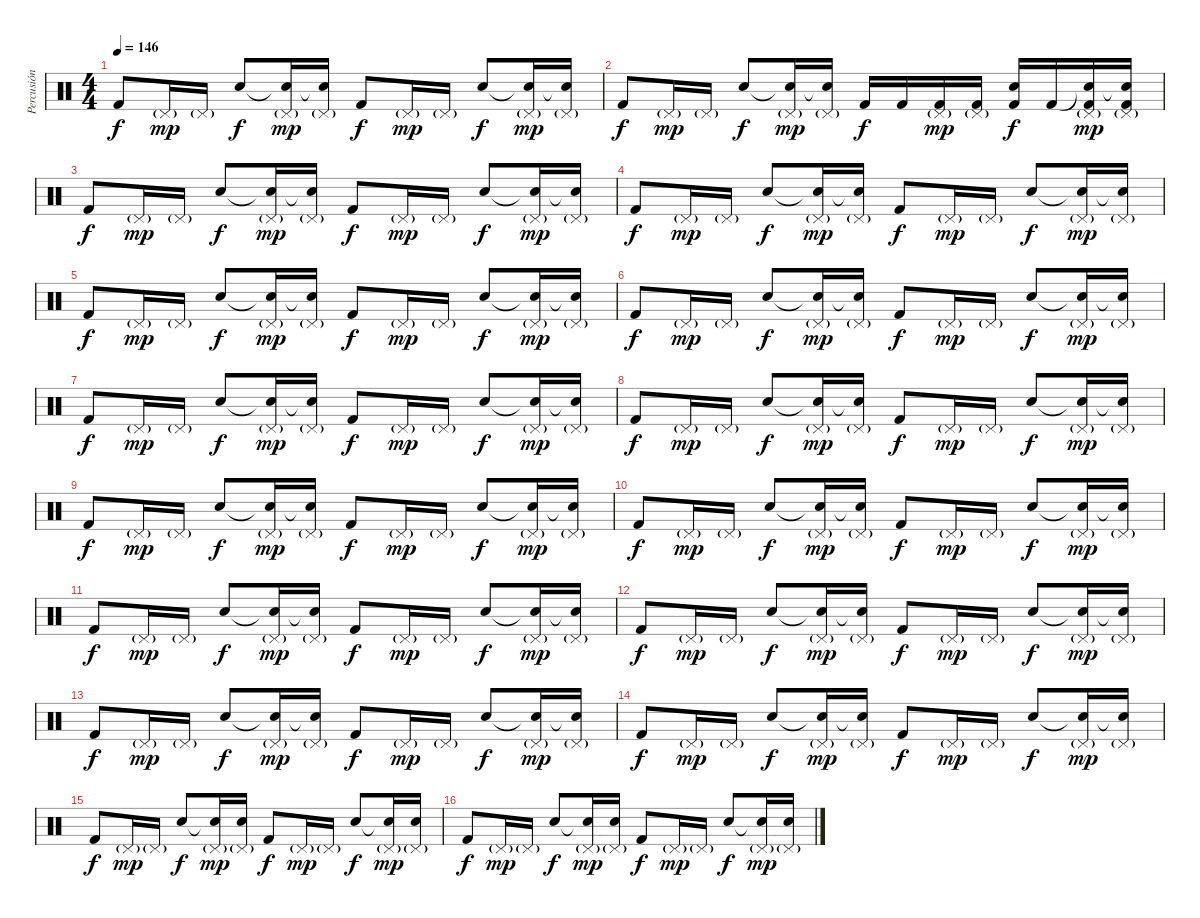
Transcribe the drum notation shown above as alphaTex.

\track ("Percusión" "Percusión") {instrument percussion}
\staff {score}
\articulation defaults
\ts (4 4)
\tempo 146
\clef neutral
\ks c "Kick (hit) 2".8{dy f} "Pedal Hi-Hat (hit)"{g}.16{dy mp} "Pedal Hi-Hat (hit)"{g}.16 "Snare (hit) 2".8{dy f}
("Snare (hit)"{t} "Pedal Hi-Hat (hit)"{g}).16{dy mp} ("Snare (hit)"{t} "Pedal Hi-Hat (hit)"{g}).16 "Kick (hit) 2".8{dy f} "Pedal Hi-Hat (hit)"{g}.16{dy mp} "Pedal Hi-Hat (hit)"{g}.16 "Snare (hit) 2".8{dy f} ("Snare (hit)"{t} "Pedal Hi-Hat (hit)"{g}).16{dy mp} ("Snare (hit)"{t} "Pedal Hi-Hat (hit)"{g}).16 |
"Kick (hit) 2".8{dy f} "Pedal Hi-Hat (hit)"{g}.16{dy mp} "Pedal Hi-Hat (hit)"{g}.16 "Snare (hit) 2".8{dy f} ("Snare (hit)"{t} "Pedal Hi-Hat (hit)"{g}).16{dy mp} ("Snare (hit)"{t} "Pedal Hi-Hat (hit)"{g}).16 "Kick (hit) 2".16{dy f} "Kick (hit) 2".16 ("Pedal Hi-Hat (hit)"{g} "Kick (hit) 2").16{dy mp} ("Pedal Hi-Hat (hit)"{g} "Kick (hit) 2").16 ("Snare (hit) 2" "Kick (hit) 2").16{dy f} "Kick (hit) 2".16 ("Snare (hit)"{t} "Pedal Hi-Hat (hit)"{g} "Kick (hit) 2").16{dy mp} ("Snare (hit)"{t} "Pedal Hi-Hat (hit)"{g} "Kick (hit) 2").16 |
"Kick (hit) 2".8{dy f} "Pedal Hi-Hat (hit)"{g}.16{dy mp} "Pedal Hi-Hat (hit)"{g}.16 "Snare (hit) 2".8{dy f} ("Snare (hit)"{t} "Pedal Hi-Hat (hit)"{g}).16{dy mp} ("Snare (hit)"{t} "Pedal Hi-Hat (hit)"{g}).16 "Kick (hit) 2".8{dy f} "Pedal Hi-Hat (hit)"{g}.16{dy mp} "Pedal Hi-Hat (hit)"{g}.16 "Snare (hit) 2".8{dy f} ("Snare (hit)"{t} "Pedal Hi-Hat (hit)"{g}).16{dy mp} ("Snare (hit)"{t} "Pedal Hi-Hat (hit)"{g}).16 |
"Kick (hit) 2".8{dy f} "Pedal Hi-Hat (hit)"{g}.16{dy mp} "Pedal Hi-Hat (hit)"{g}.16 "Snare (hit) 2".8{dy f} ("Snare (hit)"{t} "Pedal Hi-Hat (hit)"{g}).16{dy mp} ("Snare (hit)"{t} "Pedal Hi-Hat (hit)"{g}).16 "Kick (hit) 2".8{dy f} "Pedal Hi-Hat (hit)"{g}.16{dy mp} "Pedal Hi-Hat (hit)"{g}.16 "Snare (hit) 2".8{dy f} ("Snare (hit)"{t} "Pedal Hi-Hat (hit)"{g}).16{dy mp} ("Snare (hit)"{t} "Pedal Hi-Hat (hit)"{g}).16 |
"Kick (hit) 2".8{dy f} "Pedal Hi-Hat (hit)"{g}.16{dy mp} "Pedal Hi-Hat (hit)"{g}.16 "Snare (hit) 2".8{dy f} ("Snare (hit)"{t} "Pedal Hi-Hat (hit)"{g}).16{dy mp} ("Snare (hit)"{t} "Pedal Hi-Hat (hit)"{g}).16 "Kick (hit) 2".8{dy f} "Pedal Hi-Hat (hit)"{g}.16{dy mp} "Pedal Hi-Hat (hit)"{g}.16 "Snare (hit) 2".8{dy f} ("Snare (hit)"{t} "Pedal Hi-Hat (hit)"{g}).16{dy mp} ("Snare (hit)"{t} "Pedal Hi-Hat (hit)"{g}).16 |
"Kick (hit) 2".8{dy f} "Pedal Hi-Hat (hit)"{g}.16{dy mp} "Pedal Hi-Hat (hit)"{g}.16 "Snare (hit) 2".8{dy f} ("Snare (hit)"{t} "Pedal Hi-Hat (hit)"{g}).16{dy mp} ("Snare (hit)"{t} "Pedal Hi-Hat (hit)"{g}).16 "Kick (hit) 2".8{dy f} "Pedal Hi-Hat (hit)"{g}.16{dy mp} "Pedal Hi-Hat (hit)"{g}.16 "Snare (hit) 2".8{dy f} ("Snare (hit)"{t} "Pedal Hi-Hat (hit)"{g}).16{dy mp} ("Snare (hit)"{t} "Pedal Hi-Hat (hit)"{g}).16 |
"Kick (hit) 2".8{dy f} "Pedal Hi-Hat (hit)"{g}.16{dy mp} "Pedal Hi-Hat (hit)"{g}.16 "Snare (hit) 2".8{dy f} ("Snare (hit)"{t} "Pedal Hi-Hat (hit)"{g}).16{dy mp} ("Snare (hit)"{t} "Pedal Hi-Hat (hit)"{g}).16 "Kick (hit) 2".8{dy f} "Pedal Hi-Hat (hit)"{g}.16{dy mp} "Pedal Hi-Hat (hit)"{g}.16 "Snare (hit) 2".8{dy f} ("Snare (hit)"{t} "Pedal Hi-Hat (hit)"{g}).16{dy mp} ("Snare (hit)"{t} "Pedal Hi-Hat (hit)"{g}).16 |
"Kick (hit) 2".8{dy f} "Pedal Hi-Hat (hit)"{g}.16{dy mp} "Pedal Hi-Hat (hit)"{g}.16 "Snare (hit) 2".8{dy f} ("Snare (hit)"{t} "Pedal Hi-Hat (hit)"{g}).16{dy mp} ("Snare (hit)"{t} "Pedal Hi-Hat (hit)"{g}).16 "Kick (hit) 2".8{dy f} "Pedal Hi-Hat (hit)"{g}.16{dy mp} "Pedal Hi-Hat (hit)"{g}.16 "Snare (hit) 2".8{dy f} ("Snare (hit)"{t} "Pedal Hi-Hat (hit)"{g}).16{dy mp} ("Snare (hit)"{t} "Pedal Hi-Hat (hit)"{g}).16 |
"Kick (hit) 2".8{dy f} "Pedal Hi-Hat (hit)"{g}.16{dy mp} "Pedal Hi-Hat (hit)"{g}.16 "Snare (hit) 2".8{dy f} ("Snare (hit)"{t} "Pedal Hi-Hat (hit)"{g}).16{dy mp} ("Snare (hit)"{t} "Pedal Hi-Hat (hit)"{g}).16 "Kick (hit) 2".8{dy f} "Pedal Hi-Hat (hit)"{g}.16{dy mp} "Pedal Hi-Hat (hit)"{g}.16 "Snare (hit) 2".8{dy f} ("Snare (hit)"{t} "Pedal Hi-Hat (hit)"{g}).16{dy mp} ("Snare (hit)"{t} "Pedal Hi-Hat (hit)"{g}).16 |
"Kick (hit) 2".8{dy f} "Pedal Hi-Hat (hit)"{g}.16{dy mp} "Pedal Hi-Hat (hit)"{g}.16 "Snare (hit) 2".8{dy f} ("Snare (hit)"{t} "Pedal Hi-Hat (hit)"{g}).16{dy mp} ("Snare (hit)"{t} "Pedal Hi-Hat (hit)"{g}).16 "Kick (hit) 2".8{dy f} "Pedal Hi-Hat (hit)"{g}.16{dy mp} "Pedal Hi-Hat (hit)"{g}.16 "Snare (hit) 2".8{dy f} ("Snare (hit)"{t} "Pedal Hi-Hat (hit)"{g}).16{dy mp} ("Snare (hit)"{t} "Pedal Hi-Hat (hit)"{g}).16 |
"Kick (hit) 2".8{dy f} "Pedal Hi-Hat (hit)"{g}.16{dy mp} "Pedal Hi-Hat (hit)"{g}.16 "Snare (hit) 2".8{dy f} ("Snare (hit)"{t} "Pedal Hi-Hat (hit)"{g}).16{dy mp} ("Snare (hit)"{t} "Pedal Hi-Hat (hit)"{g}).16 "Kick (hit) 2".8{dy f} "Pedal Hi-Hat (hit)"{g}.16{dy mp} "Pedal Hi-Hat (hit)"{g}.16 "Snare (hit) 2".8{dy f} ("Snare (hit)"{t} "Pedal Hi-Hat (hit)"{g}).16{dy mp} ("Snare (hit)"{t} "Pedal Hi-Hat (hit)"{g}).16 |
"Kick (hit) 2".8{dy f} "Pedal Hi-Hat (hit)"{g}.16{dy mp} "Pedal Hi-Hat (hit)"{g}.16 "Snare (hit) 2".8{dy f} ("Snare (hit)"{t} "Pedal Hi-Hat (hit)"{g}).16{dy mp} ("Snare (hit)"{t} "Pedal Hi-Hat (hit)"{g}).16 "Kick (hit) 2".8{dy f} "Pedal Hi-Hat (hit)"{g}.16{dy mp} "Pedal Hi-Hat (hit)"{g}.16 "Snare (hit) 2".8{dy f} ("Snare (hit)"{t} "Pedal Hi-Hat (hit)"{g}).16{dy mp} ("Snare (hit)"{t} "Pedal Hi-Hat (hit)"{g}).16 |
"Kick (hit) 2".8{dy f} "Pedal Hi-Hat (hit)"{g}.16{dy mp} "Pedal Hi-Hat (hit)"{g}.16 "Snare (hit) 2".8{dy f} ("Snare (hit)"{t} "Pedal Hi-Hat (hit)"{g}).16{dy mp} ("Snare (hit)"{t} "Pedal Hi-Hat (hit)"{g}).16 "Kick (hit) 2".8{dy f} "Pedal Hi-Hat (hit)"{g}.16{dy mp} "Pedal Hi-Hat (hit)"{g}.16 "Snare (hit) 2".8{dy f} ("Snare (hit)"{t} "Pedal Hi-Hat (hit)"{g}).16{dy mp} ("Snare (hit)"{t} "Pedal Hi-Hat (hit)"{g}).16 |
"Kick (hit) 2".8{dy f} "Pedal Hi-Hat (hit)"{g}.16{dy mp} "Pedal Hi-Hat (hit)"{g}.16 "Snare (hit) 2".8{dy f} ("Snare (hit)"{t} "Pedal Hi-Hat (hit)"{g}).16{dy mp} ("Snare (hit)"{t} "Pedal Hi-Hat (hit)"{g}).16 "Kick (hit) 2".8{dy f} "Pedal Hi-Hat (hit)"{g}.16{dy mp} "Pedal Hi-Hat (hit)"{g}.16 "Snare (hit) 2".8{dy f} ("Snare (hit)"{t} "Pedal Hi-Hat (hit)"{g}).16{dy mp} ("Snare (hit)"{t} "Pedal Hi-Hat (hit)"{g}).16 |
"Kick (hit) 2".8{dy f} "Pedal Hi-Hat (hit)"{g}.16{dy mp} "Pedal Hi-Hat (hit)"{g}.16 "Snare (hit) 2".8{dy f} ("Snare (hit)"{t} "Pedal Hi-Hat (hit)"{g}).16{dy mp} ("Snare (hit)"{t} "Pedal Hi-Hat (hit)"{g}).16 "Kick (hit) 2".8{dy f} "Pedal Hi-Hat (hit)"{g}.16{dy mp} "Pedal Hi-Hat (hit)"{g}.16 "Snare (hit) 2".8{dy f} ("Snare (hit)"{t} "Pedal Hi-Hat (hit)"{g}).16{dy mp} ("Snare (hit)"{t} "Pedal Hi-Hat (hit)"{g}).16 |
"Kick (hit) 2".8{dy f} "Pedal Hi-Hat (hit)"{g}.16{dy mp} "Pedal Hi-Hat (hit)"{g}.16 "Snare (hit) 2".8{dy f} ("Snare (hit)"{t} "Pedal Hi-Hat (hit)"{g}).16{dy mp} ("Snare (hit)"{t} "Pedal Hi-Hat (hit)"{g}).16 "Kick (hit) 2".8{dy f} "Pedal Hi-Hat (hit)"{g}.16{dy mp} "Pedal Hi-Hat (hit)"{g}.16 "Snare (hit) 2".8{dy f} ("Snare (hit)"{t} "Pedal Hi-Hat (hit)"{g}).16{dy mp} ("Snare (hit)"{t} "Pedal Hi-Hat (hit)"{g}).16
